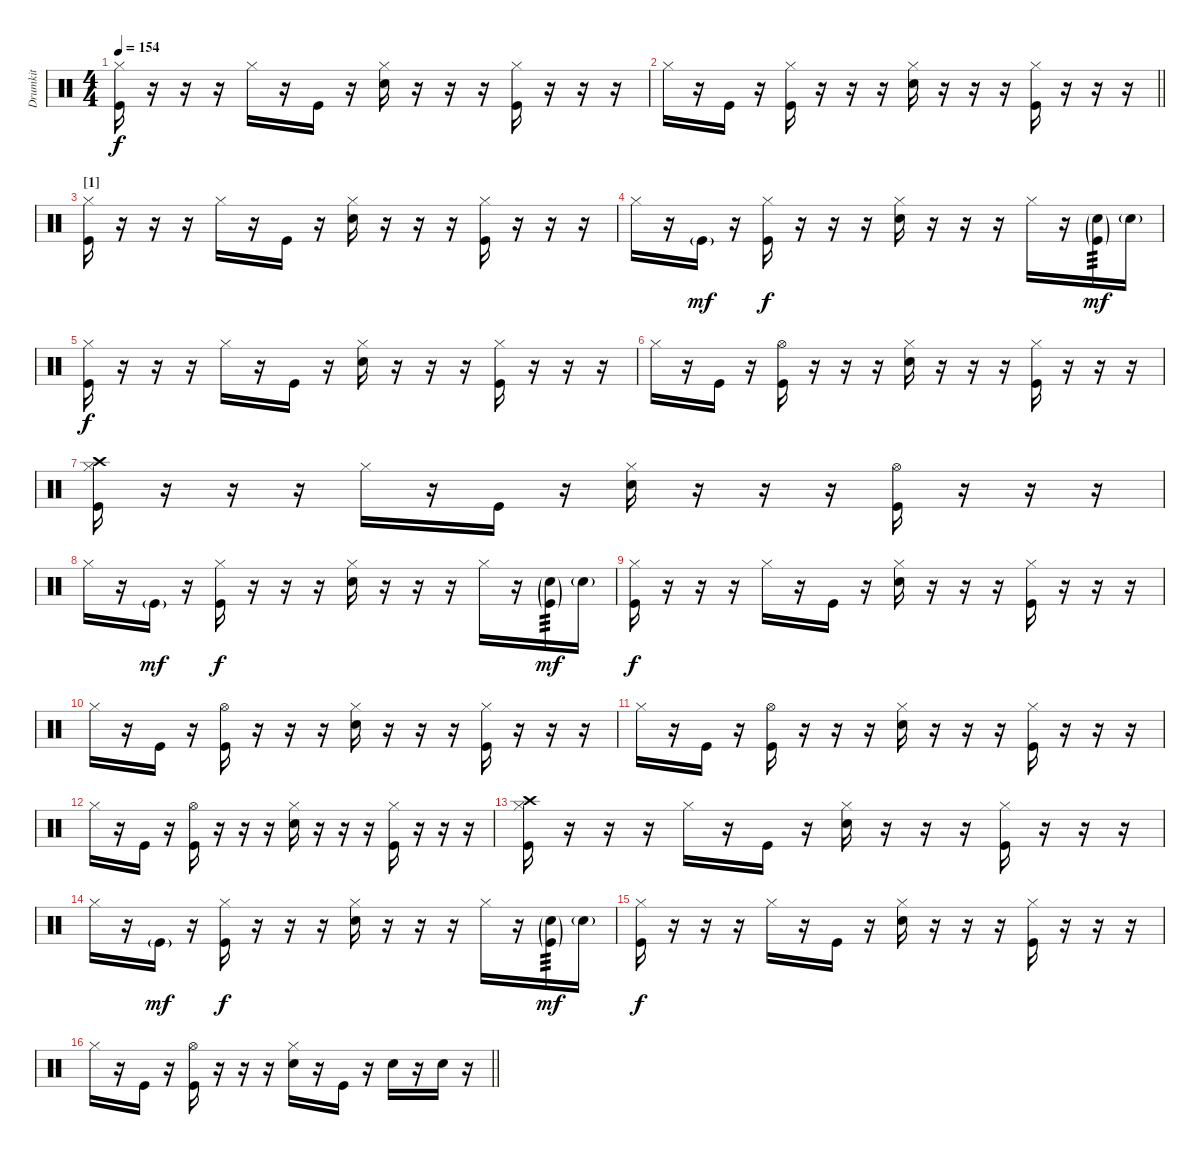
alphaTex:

\track ("Drumkit" "Drumkit") {instrument percussion}
\staff {score}
\articulation defaults
\ts (4 4)
\tempo 154
\clef neutral
\ks c
("Hi-Hat (closed)" "Kick (hit)").16{dy f} r.16 r.16 r.16 "Hi-Hat (closed)".16 r.16 "Kick (hit)".16 r.16 ("Hi-Hat (closed)" "Snare (hit) 2").16 r.16 r.16 r.16 ("Hi-Hat (closed)" "Kick (hit)").16 r.16 r.16 r.16 |
\barLineRight lightlight "Hi-Hat (closed)".16
r.16 "Kick (hit)".16 r.16 ("Hi-Hat (closed)" "Kick (hit)").16 r.16 r.16 r.16 ("Hi-Hat (closed)" "Snare (hit) 2").16 r.16 r.16 r.16 ("Hi-Hat (closed)" "Kick (hit)").16 r.16 r.16 r.16 |
\section ("" "[1]")
("Hi-Hat (closed)" "Kick (hit)").16 r.16 r.16 r.16 "Hi-Hat (closed)".16 r.16 "Kick (hit)".16 r.16 ("Hi-Hat (closed)" "Snare (hit) 2").16 r.16 r.16 r.16 ("Hi-Hat (closed)" "Kick (hit)").16 r.16 r.16 r.16 |
"Hi-Hat (closed)".16 r.16 "Kick (hit)"{g}.16{dy mf} r.16 ("Hi-Hat (closed)" "Kick (hit)").16{dy f} r.16 r.16 r.16 ("Hi-Hat (closed)" "Snare (hit) 2").16 r.16 r.16 r.16 "Hi-Hat (closed)".16 r.16 ("Snare (hit) 2"{g} "Kick (hit)"{g}).16{tp 3 dy mf} "Snare (hit) 2"{g}.16 |
("Hi-Hat (closed)" "Kick (hit)").16{dy f} r.16 r.16 r.16 "Hi-Hat (closed)".16 r.16 "Kick (hit)".16 r.16 ("Hi-Hat (closed)" "Snare (hit) 2").16 r.16 r.16 r.16 ("Hi-Hat (closed)" "Kick (hit)").16 r.16 r.16 r.16 |
"Hi-Hat (closed)".16 r.16 "Kick (hit)".16 r.16 ("Hi-Hat (open)" "Kick (hit)").16 r.16 r.16 r.16 ("Hi-Hat (closed)" "Snare (hit) 2").16 r.16 r.16 r.16 ("Hi-Hat (closed)" "Kick (hit)").16 r.16 r.16 r.16 |
("Crash high (hit)" "Hi-Hat (closed)" "Kick (hit)").16 r.16 r.16 r.16 "Hi-Hat (closed)".16 r.16 "Kick (hit)".16 r.16 ("Hi-Hat (closed)" "Snare (hit) 2").16 r.16 r.16 r.16 ("Hi-Hat (open)" "Kick (hit)").16 r.16 r.16 r.16 |
"Hi-Hat (closed)".16 r.16 "Kick (hit)"{g}.16{dy mf} r.16 ("Hi-Hat (closed)" "Kick (hit)").16{dy f} r.16 r.16 r.16 ("Hi-Hat (closed)" "Snare (hit) 2").16 r.16 r.16 r.16 "Hi-Hat (closed)".16 r.16 ("Snare (hit) 2"{g} "Kick (hit)"{g}).16{tp 3 dy mf} "Snare (hit) 2"{g}.16 |
("Hi-Hat (closed)" "Kick (hit)").16{dy f} r.16 r.16 r.16 "Hi-Hat (closed)".16 r.16 "Kick (hit)".16 r.16 ("Hi-Hat (closed)" "Snare (hit) 2").16 r.16 r.16 r.16 ("Hi-Hat (closed)" "Kick (hit)").16 r.16 r.16 r.16 |
"Hi-Hat (closed)".16 r.16 "Kick (hit)".16 r.16 ("Hi-Hat (open)" "Kick (hit)").16 r.16 r.16 r.16 ("Hi-Hat (closed)" "Snare (hit) 2").16 r.16 r.16 r.16 ("Hi-Hat (closed)" "Kick (hit)").16 r.16 r.16 r.16 |
"Hi-Hat (closed)".16 r.16 "Kick (hit)".16 r.16 ("Hi-Hat (open)" "Kick (hit)").16 r.16 r.16 r.16 ("Hi-Hat (closed)" "Snare (hit) 2").16 r.16 r.16 r.16 ("Hi-Hat (closed)" "Kick (hit)").16 r.16 r.16 r.16 |
"Hi-Hat (closed)".16 r.16 "Kick (hit)".16 r.16 ("Hi-Hat (open)" "Kick (hit)").16 r.16 r.16 r.16 ("Hi-Hat (closed)" "Snare (hit) 2").16 r.16 r.16 r.16 ("Hi-Hat (closed)" "Kick (hit)").16 r.16 r.16 r.16 |
("Crash high (hit)" "Hi-Hat (closed)" "Kick (hit)").16 r.16 r.16 r.16 "Hi-Hat (closed)".16 r.16 "Kick (hit)".16 r.16 ("Hi-Hat (closed)" "Snare (hit) 2").16 r.16 r.16 r.16 ("Hi-Hat (closed)" "Kick (hit)").16 r.16 r.16 r.16 |
"Hi-Hat (closed)".16 r.16 "Kick (hit)"{g}.16{dy mf} r.16 ("Hi-Hat (closed)" "Kick (hit)").16{dy f} r.16 r.16 r.16 ("Hi-Hat (closed)" "Snare (hit) 2").16 r.16 r.16 r.16 "Hi-Hat (closed)".16 r.16 ("Snare (hit) 2"{g} "Kick (hit)"{g}).16{tp 3 dy mf} "Snare (hit) 2"{g}.16 |
("Hi-Hat (closed)" "Kick (hit)").16{dy f} r.16 r.16 r.16 "Hi-Hat (closed)".16 r.16 "Kick (hit)".16 r.16 ("Hi-Hat (closed)" "Snare (hit) 2").16 r.16 r.16 r.16 ("Hi-Hat (closed)" "Kick (hit)").16 r.16 r.16 r.16 |
\barLineRight lightlight "Hi-Hat (closed)".16
r.16 "Kick (hit)".16 r.16 ("Hi-Hat (open)" "Kick (hit)").16 r.16 r.16 r.16 ("Hi-Hat (closed)" "Snare (hit) 2").16 r.16 "Kick (hit)".16 r.16 "Snare (hit) 2".16 r.16 "Snare (hit) 2".16 r.16
